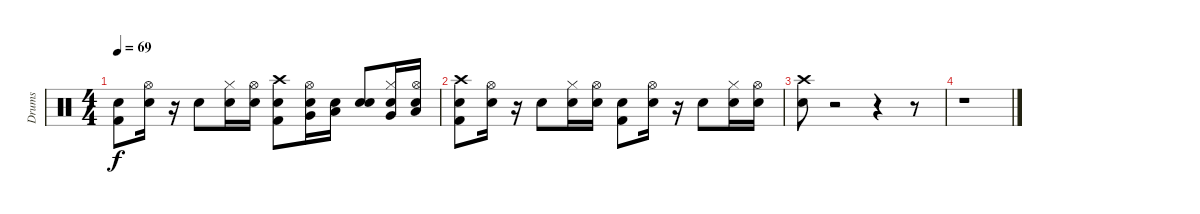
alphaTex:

\track ("Drums" "Drums") {instrument percussion}
\staff {score}
\articulation defaults
\ts (4 4)
\tempo 69
\clef neutral
\ks c
("Snare (hit)" "Kick (hit) 2").8{dy f} ("Snare (hit)" "Hi-Hat (open)").16 r.16 "Snare (hit) 2".8 ("Snare (hit)" "Hi-Hat (closed)").16 ("Snare (hit)" "Hi-Hat (open)").16 ("Snare (hit)" "Crash high (hit)" "Kick (hit) 2").8 ("Snare (hit)" "Very Low Tom (hit)" "Hi-Hat (open)").16 ("Snare (hit)" "Low Floor Tom (hit)").16 ("Snare (hit)" "Snare (hit) 2").8 ("Snare (hit)" "Very Low Tom (hit)" "Hi-Hat (closed)").16 ("Snare (hit)" "Low Tom (hit)" "Hi-Hat (open)").16 |
("Snare (hit)" "Crash high (hit)" "Kick (hit) 2").8 ("Snare (hit)" "Hi-Hat (open)").16 r.16 "Snare (hit) 2".8 ("Snare (hit)" "Hi-Hat (closed)").16 ("Snare (hit)" "Hi-Hat (open)").16 ("Snare (hit)" "Kick (hit) 2").8 ("Snare (hit)" "Hi-Hat (open)").16 r.16 "Snare (hit) 2".8 ("Snare (hit)" "Hi-Hat (closed)").16 ("Snare (hit)" "Hi-Hat (open)").16 |
("Snare (hit)" "Crash high (hit)").8 r.2 r.4 r.8 |
r.1
